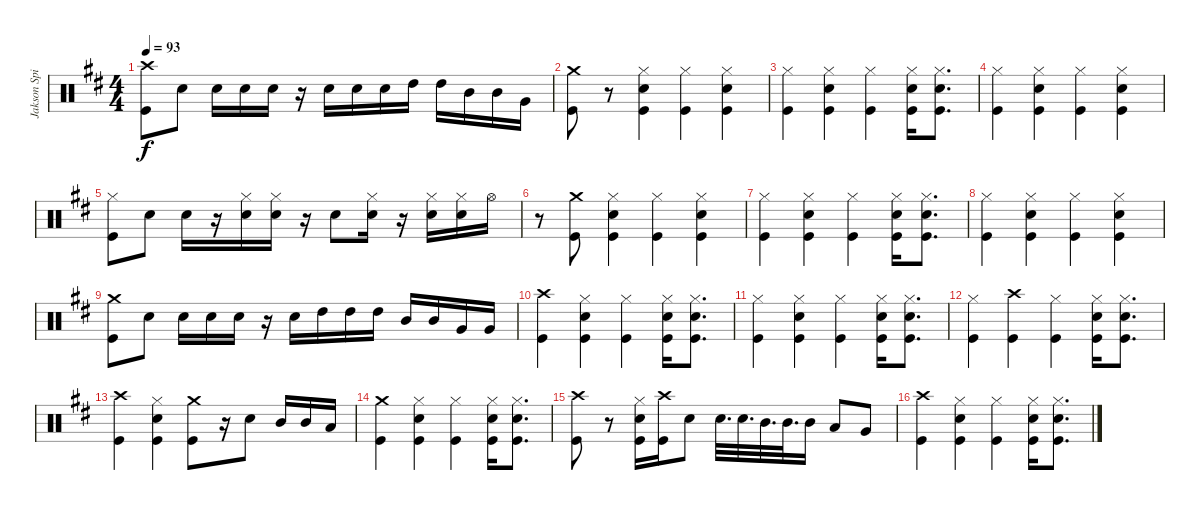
\track ("Jakson Spires Drums" "Jakson Spi") {instrument percussion}
\staff {score}
\articulation defaults
\ts (4 4)
\tempo 93
\clef neutral
\ks bminor
("Crash high (hit)" "Kick (hit)").8{dy f} "Snare (hit) 2".8 "Snare (hit) 2".16 "Snare (hit) 2".16 "Snare (hit) 2".16 r.16 "Snare (hit) 2".16 "Snare (hit) 2".16 "Snare (hit) 2".16 "High Tom (hit)".16 "High Tom (hit)".16 "Mid Tom (hit)".16 "Mid Tom (hit)".16 "Very Low Tom (hit)".16 |
("Crash medium (hit)" "Kick (hit)").8 r.8 ("Hi-Hat (closed)" "Snare (hit) 2" "Kick (hit)").4 ("Hi-Hat (closed)" "Kick (hit)").4 ("Hi-Hat (closed)" "Snare (hit) 2" "Kick (hit)").4 |
("Hi-Hat (closed)" "Kick (hit)").4 ("Hi-Hat (closed)" "Snare (hit) 2" "Kick (hit)").4 ("Hi-Hat (closed)" "Kick (hit)").4 ("Hi-Hat (closed)" "Snare (hit) 2" "Kick (hit)").16 ("Hi-Hat (closed)" "Snare (hit) 2" "Kick (hit)").8{d} |
("Hi-Hat (closed)" "Kick (hit)").4 ("Hi-Hat (closed)" "Snare (hit) 2" "Kick (hit)").4 ("Hi-Hat (closed)" "Kick (hit)").4 ("Hi-Hat (closed)" "Snare (hit) 2" "Kick (hit)").4 |
("Hi-Hat (closed)" "Kick (hit)").8 "Snare (hit) 2".8 "Snare (hit) 2".16 r.16 ("Hi-Hat (closed)" "Snare (hit) 2").16 ("Hi-Hat (closed)" "Snare (hit) 2").16 r.16 "Snare (hit) 2".8 ("Hi-Hat (closed)" "Snare (hit) 2").16 r.16 ("Hi-Hat (closed)" "Snare (hit) 2").16 ("Hi-Hat (closed)" "Snare (hit) 2").16 "Hi-Hat (open)".16 |
r.8 ("Crash medium (hit)" "Kick (hit)").8 ("Hi-Hat (closed)" "Snare (hit) 2" "Kick (hit)").4 ("Hi-Hat (closed)" "Kick (hit)").4 ("Hi-Hat (closed)" "Snare (hit) 2" "Kick (hit)").4 |
("Hi-Hat (closed)" "Kick (hit)").4 ("Hi-Hat (closed)" "Snare (hit) 2" "Kick (hit)").4 ("Hi-Hat (closed)" "Kick (hit)").4 ("Hi-Hat (closed)" "Snare (hit) 2" "Kick (hit)").16 ("Hi-Hat (closed)" "Snare (hit) 2" "Kick (hit)").8{d} |
("Hi-Hat (closed)" "Kick (hit)").4 ("Hi-Hat (closed)" "Snare (hit) 2" "Kick (hit)").4 ("Hi-Hat (closed)" "Kick (hit)").4 ("Hi-Hat (closed)" "Snare (hit) 2" "Kick (hit)").4 |
("Crash medium (hit)" "Kick (hit)").8 "Snare (hit) 2".8 "Snare (hit) 2".16 "Snare (hit) 2".16 "Snare (hit) 2".16 r.16 "Snare (hit) 2".16 "High Tom (hit)".16 "High Tom (hit)".16 "High Tom (hit)".16 "Mid Tom (hit)".16 "Mid Tom (hit)".16 "Very Low Tom (hit)".16 "Very Low Tom (hit)".16 |
("Crash high (hit)" "Kick (hit)").4 ("Hi-Hat (closed)" "Snare (hit) 2" "Kick (hit)").4 ("Hi-Hat (closed)" "Kick (hit)").4 ("Hi-Hat (closed)" "Snare (hit) 2" "Kick (hit)").16 ("Hi-Hat (closed)" "Snare (hit) 2" "Kick (hit)").8{d} |
("Hi-Hat (closed)" "Kick (hit)").4 ("Hi-Hat (closed)" "Snare (hit) 2" "Kick (hit)").4 ("Hi-Hat (closed)" "Kick (hit)").4 ("Hi-Hat (closed)" "Snare (hit) 2" "Kick (hit)").16 ("Hi-Hat (closed)" "Snare (hit) 2" "Kick (hit)").8{d} |
("Hi-Hat (closed)" "Kick (hit)").4 ("Crash high (hit)" "Kick (hit)").4 ("Hi-Hat (closed)" "Kick (hit)").4 ("Hi-Hat (closed)" "Snare (hit) 2" "Kick (hit)").16 ("Hi-Hat (closed)" "Snare (hit) 2" "Kick (hit)").8{d} |
("Crash high (hit)" "Kick (hit)").4 ("Hi-Hat (closed)" "Snare (hit) 2" "Kick (hit)").4 ("Crash medium (hit)" "Kick (hit)").8 r.16 "Snare (hit) 2".8 "Mid Tom (hit)".16 "Mid Tom (hit)".16 "Low Tom (hit)".16 |
("Crash medium (hit)" "Kick (hit)").4 ("Hi-Hat (closed)" "Snare (hit) 2" "Kick (hit)").4 ("Hi-Hat (closed)" "Kick (hit)").4 ("Hi-Hat (closed)" "Snare (hit) 2" "Kick (hit)").16 ("Hi-Hat (closed)" "Snare (hit) 2" "Kick (hit)").8{d} |
("Crash high (hit)" "Kick (hit)").8 r.8 ("Hi-Hat (closed)" "Snare (hit) 2" "Kick (hit)").16 ("Crash high (hit)" "Kick (hit)").16 "Snare (hit) 2".8 "Snare (hit) 2".32{d} "Snare (hit) 2".32{d} "Mid Tom (hit)".32{d} "Mid Tom (hit)".32{d} "Mid Tom (hit)".16 "Low Tom (hit)".8 "Very Low Tom (hit)".8 |
("Crash high (hit)" "Kick (hit)").4 ("Hi-Hat (closed)" "Snare (hit) 2" "Kick (hit)").4 ("Hi-Hat (closed)" "Kick (hit)").4 ("Hi-Hat (closed)" "Snare (hit) 2" "Kick (hit)").16 ("Hi-Hat (closed)" "Snare (hit) 2" "Kick (hit)").8{d}
